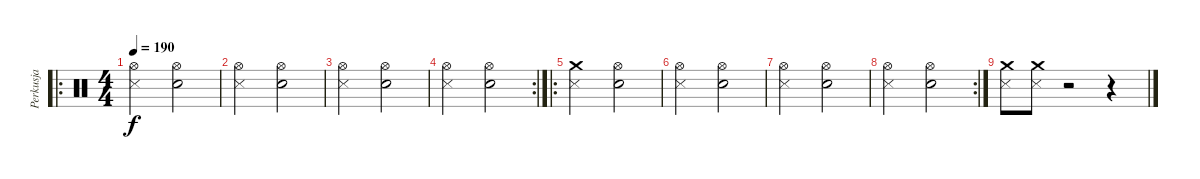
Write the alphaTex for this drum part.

\track ("Perkusja" "Perkusja") {instrument percussion}
\staff {score}
\articulation defaults
\ro
\ts (4 4)
\tempo 190
\clef neutral
\ks c
("Hi-Hat (open)" "Metronome (hit)").2{dy f} ("Hi-Hat (open)" "Electric Snare (hit)").2 |
("Hi-Hat (open)" "Metronome (hit)").2 ("Hi-Hat (open)" "Electric Snare (hit)").2 |
("Hi-Hat (open)" "Metronome (hit)").2 ("Hi-Hat (open)" "Electric Snare (hit)").2 |
\rc 2
("Hi-Hat (open)" "Metronome (hit)").2 ("Hi-Hat (open)" "Electric Snare (hit)").2 |
\ro
("Crash medium (hit)" "Metronome (hit)").2 ("Hi-Hat (open)" "Electric Snare (hit)").2 |
("Hi-Hat (open)" "Metronome (hit)").2 ("Hi-Hat (open)" "Electric Snare (hit)").2 |
("Hi-Hat (open)" "Metronome (hit)").2 ("Hi-Hat (open)" "Electric Snare (hit)").2 |
\rc 2
("Hi-Hat (open)" "Metronome (hit)").2 ("Hi-Hat (open)" "Electric Snare (hit)").2 |
("Crash medium (hit)" "Metronome (hit)").8 ("Crash medium (hit)" "Metronome (hit)").8 r.2 r.4
